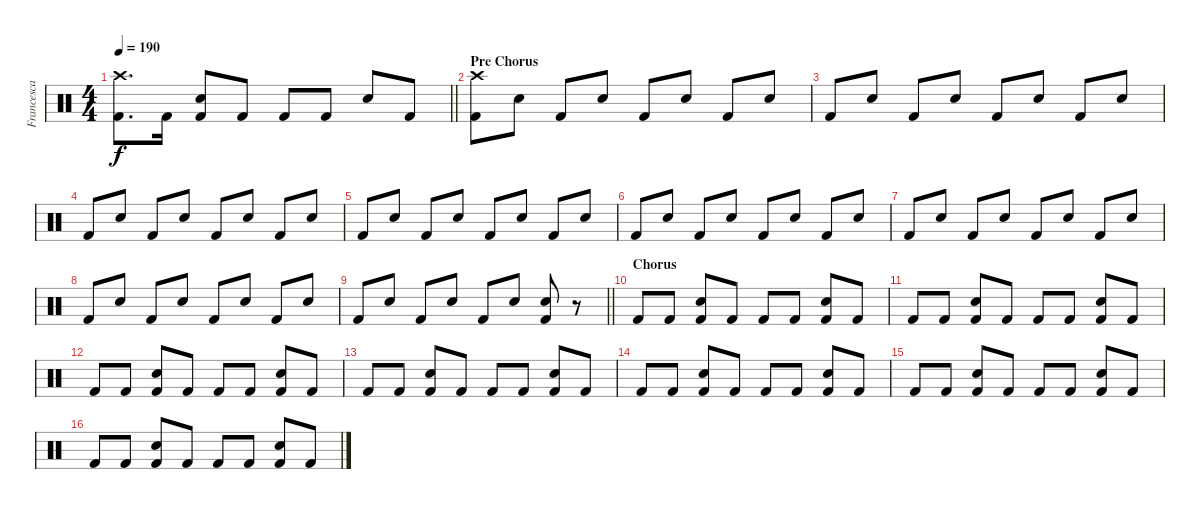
\track ("Francesca Tresca" "Francesca ") {instrument percussion}
\staff {score}
\articulation defaults
\ts (4 4)
\tempo 190
\clef neutral
\barLineRight lightlight
\ks c
("Crash high (hit)" "Kick (hit) 2").8{d dy f} "Kick (hit) 2".16 ("Snare (hit) 2" "Kick (hit) 2").8 "Kick (hit) 2".8 "Kick (hit) 2".8 "Kick (hit) 2".8 "Snare (hit) 2".8 "Kick (hit) 2".8 |
\section ("" "Pre Chorus")
("Crash high (hit)" "Kick (hit) 2").8 "Snare (hit) 2".8 "Kick (hit) 2".8 "Snare (hit) 2".8 "Kick (hit) 2".8 "Snare (hit) 2".8 "Kick (hit) 2".8 "Snare (hit) 2".8 |
"Kick (hit) 2".8 "Snare (hit) 2".8 "Kick (hit) 2".8 "Snare (hit) 2".8 "Kick (hit) 2".8 "Snare (hit) 2".8 "Kick (hit) 2".8 "Snare (hit) 2".8 |
"Kick (hit) 2".8 "Snare (hit) 2".8 "Kick (hit) 2".8 "Snare (hit) 2".8 "Kick (hit) 2".8 "Snare (hit) 2".8 "Kick (hit) 2".8 "Snare (hit) 2".8 |
"Kick (hit) 2".8 "Snare (hit) 2".8 "Kick (hit) 2".8 "Snare (hit) 2".8 "Kick (hit) 2".8 "Snare (hit) 2".8 "Kick (hit) 2".8 "Snare (hit) 2".8 |
"Kick (hit) 2".8 "Snare (hit) 2".8 "Kick (hit) 2".8 "Snare (hit) 2".8 "Kick (hit) 2".8 "Snare (hit) 2".8 "Kick (hit) 2".8 "Snare (hit) 2".8 |
"Kick (hit) 2".8 "Snare (hit) 2".8 "Kick (hit) 2".8 "Snare (hit) 2".8 "Kick (hit) 2".8 "Snare (hit) 2".8 "Kick (hit) 2".8 "Snare (hit) 2".8 |
"Kick (hit) 2".8 "Snare (hit) 2".8 "Kick (hit) 2".8 "Snare (hit) 2".8 "Kick (hit) 2".8 "Snare (hit) 2".8 "Kick (hit) 2".8 "Snare (hit) 2".8 |
\barLineRight lightlight "Kick (hit) 2".8 "Snare (hit) 2".8 "Kick (hit) 2".8 "Snare (hit) 2".8 "Kick (hit) 2".8 "Snare (hit) 2".8
("Snare (hit) 2" "Kick (hit) 2").8 r.8 |
\section ("" "Chorus")
"Kick (hit) 2".8 "Kick (hit) 2".8 ("Snare (hit) 2" "Kick (hit) 2").8 "Kick (hit) 2".8 "Kick (hit) 2".8 "Kick (hit) 2".8 ("Snare (hit) 2" "Kick (hit) 2").8 "Kick (hit) 2".8 |
"Kick (hit) 2".8 "Kick (hit) 2".8 ("Snare (hit) 2" "Kick (hit) 2").8 "Kick (hit) 2".8 "Kick (hit) 2".8 "Kick (hit) 2".8 ("Snare (hit) 2" "Kick (hit) 2").8 "Kick (hit) 2".8 |
"Kick (hit) 2".8 "Kick (hit) 2".8 ("Snare (hit) 2" "Kick (hit) 2").8 "Kick (hit) 2".8 "Kick (hit) 2".8 "Kick (hit) 2".8 ("Snare (hit) 2" "Kick (hit) 2").8 "Kick (hit) 2".8 |
"Kick (hit) 2".8 "Kick (hit) 2".8 ("Snare (hit) 2" "Kick (hit) 2").8 "Kick (hit) 2".8 "Kick (hit) 2".8 "Kick (hit) 2".8 ("Snare (hit) 2" "Kick (hit) 2").8 "Kick (hit) 2".8 |
"Kick (hit) 2".8 "Kick (hit) 2".8 ("Snare (hit) 2" "Kick (hit) 2").8 "Kick (hit) 2".8 "Kick (hit) 2".8 "Kick (hit) 2".8 ("Snare (hit) 2" "Kick (hit) 2").8 "Kick (hit) 2".8 |
"Kick (hit) 2".8 "Kick (hit) 2".8 ("Snare (hit) 2" "Kick (hit) 2").8 "Kick (hit) 2".8 "Kick (hit) 2".8 "Kick (hit) 2".8 ("Snare (hit) 2" "Kick (hit) 2").8 "Kick (hit) 2".8 |
"Kick (hit) 2".8 "Kick (hit) 2".8 ("Snare (hit) 2" "Kick (hit) 2").8 "Kick (hit) 2".8 "Kick (hit) 2".8 "Kick (hit) 2".8 ("Snare (hit) 2" "Kick (hit) 2").8 "Kick (hit) 2".8
